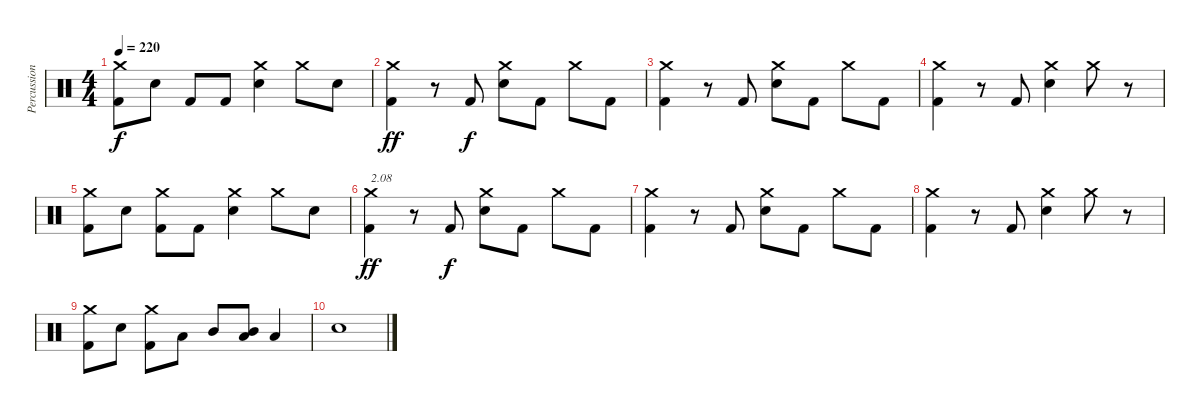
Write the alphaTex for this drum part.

\track ("Percussions" "Percussion") {instrument percussion}
\staff {score}
\articulation defaults
\ts (4 4)
\tempo 220
\clef neutral
\ks c
("Kick (hit) 2" "Crash medium (hit)").8{dy f} "Electric Snare (hit)".8 "Kick (hit) 2".8 "Kick (hit) 2".8 ("Electric Snare (hit)" "Crash medium (hit)").4 "Crash medium (hit)".8 "Electric Snare (hit)".8 |
("Kick (hit) 2" "Crash medium (hit)").4{dy ff} r.8 "Kick (hit) 2".8{dy f} ("Electric Snare (hit)" "Crash medium (hit)").8 "Kick (hit) 2".8 "Crash medium (hit)".8 "Kick (hit) 2".8 |
("Kick (hit) 2" "Crash medium (hit)").4 r.8 "Kick (hit) 2".8 ("Electric Snare (hit)" "Crash medium (hit)").8 "Kick (hit) 2".8 "Crash medium (hit)".8 "Kick (hit) 2".8 |
("Kick (hit) 2" "Crash medium (hit)").4 r.8 "Kick (hit) 2".8 ("Electric Snare (hit)" "Crash medium (hit)").4 "Crash medium (hit)".8 r.8 |
("Kick (hit) 2" "Crash medium (hit)").8 "Electric Snare (hit)".8 ("Kick (hit) 2" "Crash medium (hit)").8 "Kick (hit) 2".8 ("Electric Snare (hit)" "Crash medium (hit)").4 "Crash medium (hit)".8 "Electric Snare (hit)".8 |
("Kick (hit) 2" "Crash medium (hit)").4{txt "2.08" dy ff} r.8 "Kick (hit) 2".8{dy f} ("Electric Snare (hit)" "Crash medium (hit)").8 "Kick (hit) 2".8 "Crash medium (hit)".8 "Kick (hit) 2".8 |
("Kick (hit) 2" "Crash medium (hit)").4 r.8 "Kick (hit) 2".8 ("Electric Snare (hit)" "Crash medium (hit)").8 "Kick (hit) 2".8 "Crash medium (hit)".8 "Kick (hit) 2".8 |
("Kick (hit) 2" "Crash medium (hit)").4 r.8 "Kick (hit) 2".8 ("Electric Snare (hit)" "Crash medium (hit)").4 "Crash medium (hit)".8 r.8 |
("Kick (hit) 2" "Crash medium (hit)").8 "Electric Snare (hit)".8 ("Kick (hit) 2" "Crash medium (hit)").8 "Low Tom (hit)".8 "Mid Tom (hit)".8 ("Mid Tom (hit)" "Low Tom (hit)").8 "Low Tom (hit)".4 |
"Electric Snare (hit)".1
